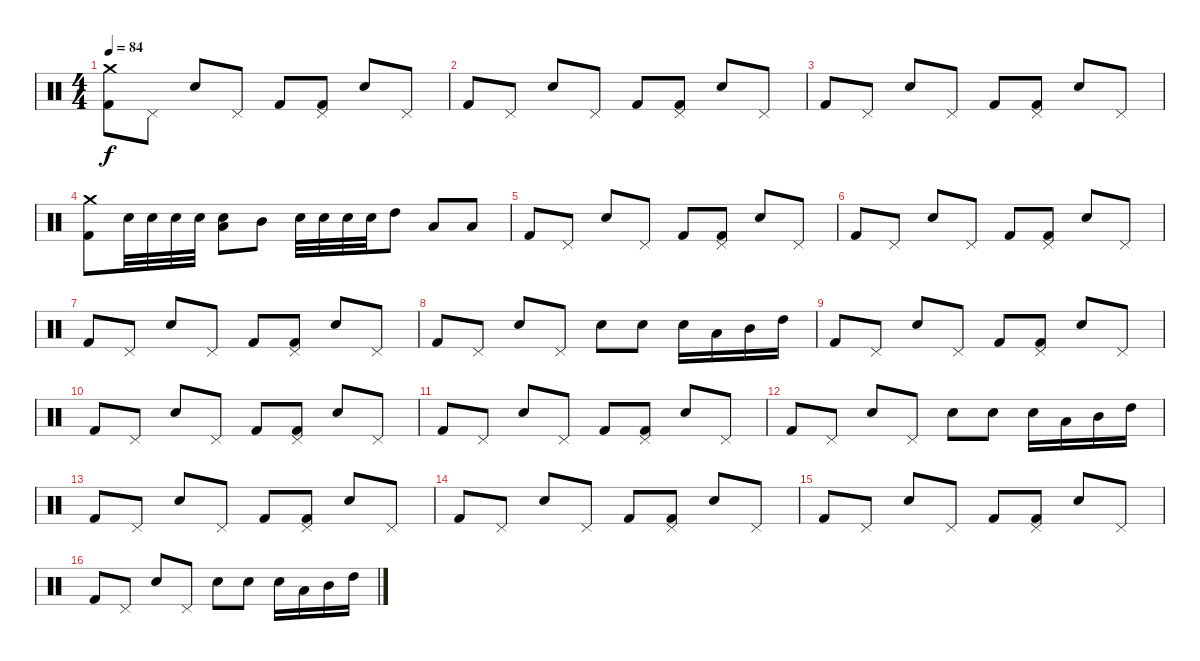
\track "" {instrument percussion}
\staff {score}
\articulation defaults
\ts (4 4)
\tempo 84
\clef neutral
\ks c
("Crash medium (hit)" "Kick (hit) 2").8{dy f} "Pedal Hi-Hat (hit)".8 "Snare (hit) 2".8 "Pedal Hi-Hat (hit)".8 "Kick (hit) 2".8 ("Pedal Hi-Hat (hit)" "Kick (hit) 2").8 "Snare (hit) 2".8 "Pedal Hi-Hat (hit)".8 |
"Kick (hit) 2".8 "Pedal Hi-Hat (hit)".8 "Snare (hit) 2".8 "Pedal Hi-Hat (hit)".8 "Kick (hit) 2".8 ("Pedal Hi-Hat (hit)" "Kick (hit) 2").8 "Snare (hit) 2".8 "Pedal Hi-Hat (hit)".8 |
"Kick (hit) 2".8 "Pedal Hi-Hat (hit)".8 "Snare (hit) 2".8 "Pedal Hi-Hat (hit)".8 "Kick (hit) 2".8 ("Pedal Hi-Hat (hit)" "Kick (hit) 2").8 "Snare (hit) 2".8 "Pedal Hi-Hat (hit)".8 |
("Crash medium (hit)" "Kick (hit) 2").8 "Snare (hit) 2".32 "Snare (hit) 2".32 "Snare (hit) 2".32 "Snare (hit) 2".32 ("Electric Snare (hit)" "Low Tom (hit)").8 "Mid Tom (hit)".8 "Snare (hit) 2".32 "Snare (hit) 2".32 "Snare (hit) 2".32 "Snare (hit) 2".32 "High Tom (hit)".8 "Low Tom (hit)".8 "Low Tom (hit)".8 |
"Kick (hit) 2".8 "Pedal Hi-Hat (hit)".8 "Snare (hit) 2".8 "Pedal Hi-Hat (hit)".8 "Kick (hit) 2".8 ("Pedal Hi-Hat (hit)" "Kick (hit) 2").8 "Snare (hit) 2".8 "Pedal Hi-Hat (hit)".8 |
"Kick (hit) 2".8 "Pedal Hi-Hat (hit)".8 "Snare (hit) 2".8 "Pedal Hi-Hat (hit)".8 "Kick (hit) 2".8 ("Pedal Hi-Hat (hit)" "Kick (hit) 2").8 "Snare (hit) 2".8 "Pedal Hi-Hat (hit)".8 |
"Kick (hit) 2".8 "Pedal Hi-Hat (hit)".8 "Snare (hit) 2".8 "Pedal Hi-Hat (hit)".8 "Kick (hit) 2".8 ("Pedal Hi-Hat (hit)" "Kick (hit) 2").8 "Snare (hit) 2".8 "Pedal Hi-Hat (hit)".8 |
"Kick (hit) 2".8 "Pedal Hi-Hat (hit)".8 "Snare (hit) 2".8 "Pedal Hi-Hat (hit)".8 "Electric Snare (hit)".8 "Electric Snare (hit)".8 "Electric Snare (hit)".16 "Low Tom (hit)".16 "Mid Tom (hit)".16 "High Tom (hit)".16 |
"Kick (hit) 2".8 "Pedal Hi-Hat (hit)".8 "Snare (hit) 2".8 "Pedal Hi-Hat (hit)".8 "Kick (hit) 2".8 ("Pedal Hi-Hat (hit)" "Kick (hit) 2").8 "Snare (hit) 2".8 "Pedal Hi-Hat (hit)".8 |
"Kick (hit) 2".8 "Pedal Hi-Hat (hit)".8 "Snare (hit) 2".8 "Pedal Hi-Hat (hit)".8 "Kick (hit) 2".8 ("Pedal Hi-Hat (hit)" "Kick (hit) 2").8 "Snare (hit) 2".8 "Pedal Hi-Hat (hit)".8 |
"Kick (hit) 2".8 "Pedal Hi-Hat (hit)".8 "Snare (hit) 2".8 "Pedal Hi-Hat (hit)".8 "Kick (hit) 2".8 ("Pedal Hi-Hat (hit)" "Kick (hit) 2").8 "Snare (hit) 2".8 "Pedal Hi-Hat (hit)".8 |
"Kick (hit) 2".8 "Pedal Hi-Hat (hit)".8 "Snare (hit) 2".8 "Pedal Hi-Hat (hit)".8 "Electric Snare (hit)".8 "Electric Snare (hit)".8 "Electric Snare (hit)".16 "Low Tom (hit)".16 "Mid Tom (hit)".16 "High Tom (hit)".16 |
"Kick (hit) 2".8 "Pedal Hi-Hat (hit)".8 "Snare (hit) 2".8 "Pedal Hi-Hat (hit)".8 "Kick (hit) 2".8 ("Pedal Hi-Hat (hit)" "Kick (hit) 2").8 "Snare (hit) 2".8 "Pedal Hi-Hat (hit)".8 |
"Kick (hit) 2".8 "Pedal Hi-Hat (hit)".8 "Snare (hit) 2".8 "Pedal Hi-Hat (hit)".8 "Kick (hit) 2".8 ("Pedal Hi-Hat (hit)" "Kick (hit) 2").8 "Snare (hit) 2".8 "Pedal Hi-Hat (hit)".8 |
"Kick (hit) 2".8 "Pedal Hi-Hat (hit)".8 "Snare (hit) 2".8 "Pedal Hi-Hat (hit)".8 "Kick (hit) 2".8 ("Pedal Hi-Hat (hit)" "Kick (hit) 2").8 "Snare (hit) 2".8 "Pedal Hi-Hat (hit)".8 |
"Kick (hit) 2".8 "Pedal Hi-Hat (hit)".8 "Snare (hit) 2".8 "Pedal Hi-Hat (hit)".8 "Electric Snare (hit)".8 "Electric Snare (hit)".8 "Electric Snare (hit)".16 "Low Tom (hit)".16 "Mid Tom (hit)".16 "High Tom (hit)".16
